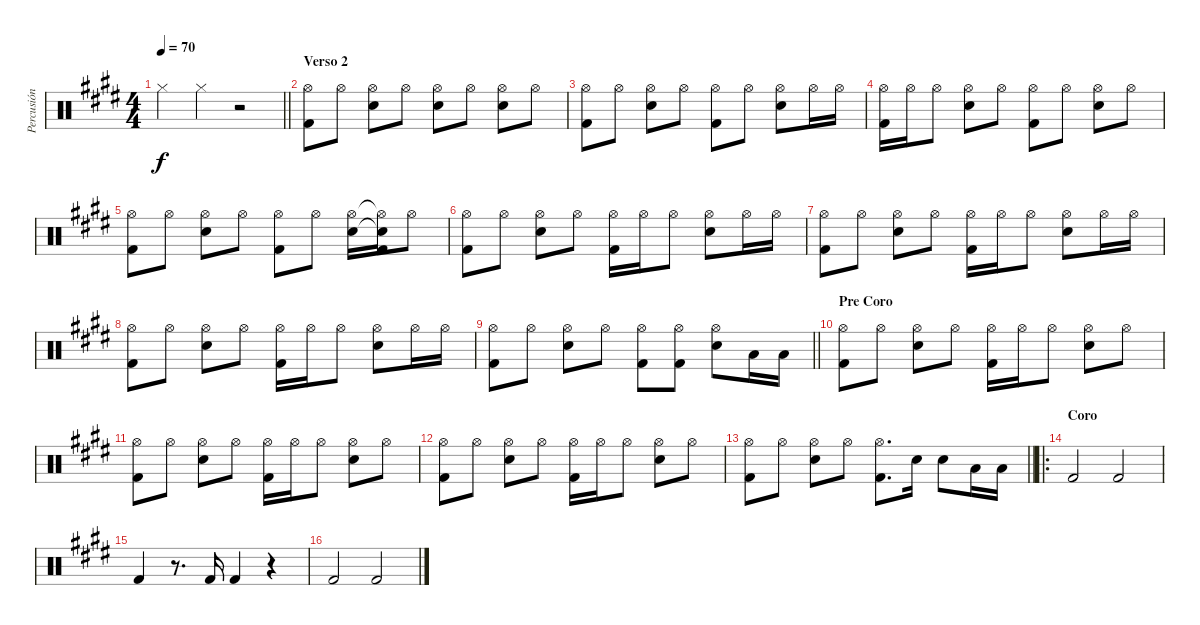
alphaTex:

\track ("Percusión" "Percusión") {instrument percussion}
\staff {score}
\articulation defaults
\ts (4 4)
\tempo 70
\clef neutral
\barLineRight lightlight
\ks e "Hi-Hat (closed)".4{dy f} "Hi-Hat (closed)".4
r.2 |
\section ("" "Verso 2")
("Hi-Hat (open)" "Kick (hit) 2").8 "Hi-Hat (open)".8 ("Hi-Hat (open)" "Snare (hit) 2").8 "Hi-Hat (open)".8 ("Hi-Hat (open)" "Snare (hit)").8 "Hi-Hat (open)".8 ("Hi-Hat (open)" "Snare (hit) 2").8 "Hi-Hat (open)".8 |
("Hi-Hat (open)" "Kick (hit) 2").8 "Hi-Hat (open)".8 ("Hi-Hat (open)" "Snare (hit) 2").8 "Hi-Hat (open)".8 ("Hi-Hat (open)" "Kick (hit) 2").8 "Hi-Hat (open)".8 ("Hi-Hat (open)" "Snare (hit) 2").8 "Hi-Hat (open)".16 "Hi-Hat (open)".16 |
("Hi-Hat (open)" "Kick (hit) 2").16 "Hi-Hat (open)".16 "Hi-Hat (open)".8 ("Hi-Hat (open)" "Snare (hit) 2").8 "Hi-Hat (open)".8 ("Hi-Hat (open)" "Kick (hit) 2").8 "Hi-Hat (open)".8 ("Hi-Hat (open)" "Snare (hit) 2").8 "Hi-Hat (open)".8 |
("Hi-Hat (open)" "Kick (hit) 2").8 "Hi-Hat (open)".8 ("Hi-Hat (open)" "Snare (hit) 2").8 "Hi-Hat (open)".8 ("Hi-Hat (open)" "Kick (hit) 2").8 "Hi-Hat (open)".8 ("Hi-Hat (open)" "Snare (hit) 2").16 ("Hi-Hat (open)"{t} "Snare (hit) 2"{t} "Kick (hit) 2").16 "Hi-Hat (open)".8 |
("Hi-Hat (open)" "Kick (hit) 2").8 "Hi-Hat (open)".8 ("Hi-Hat (open)" "Snare (hit) 2").8 "Hi-Hat (open)".8 ("Hi-Hat (open)" "Kick (hit) 2").16 "Hi-Hat (open)".16 "Hi-Hat (open)".8 ("Hi-Hat (open)" "Snare (hit) 2").8 "Hi-Hat (open)".16 "Hi-Hat (open)".16 |
("Hi-Hat (open)" "Kick (hit) 2").8 "Hi-Hat (open)".8 ("Hi-Hat (open)" "Snare (hit) 2").8 "Hi-Hat (open)".8 ("Hi-Hat (open)" "Kick (hit) 2").16 "Hi-Hat (open)".16 "Hi-Hat (open)".8 ("Hi-Hat (open)" "Snare (hit) 2").8 "Hi-Hat (open)".16 "Hi-Hat (open)".16 |
("Hi-Hat (open)" "Kick (hit) 2").8 "Hi-Hat (open)".8 ("Hi-Hat (open)" "Snare (hit) 2").8 "Hi-Hat (open)".8 ("Hi-Hat (open)" "Kick (hit) 2").16 "Hi-Hat (open)".16 "Hi-Hat (open)".8 ("Hi-Hat (open)" "Snare (hit) 2").8 "Hi-Hat (open)".16 "Hi-Hat (open)".16 |
\barLineRight lightlight
("Hi-Hat (open)" "Kick (hit) 2").8 "Hi-Hat (open)".8 ("Hi-Hat (open)" "Snare (hit) 2").8 "Hi-Hat (open)".8 ("Hi-Hat (open)" "Kick (hit) 2").8 ("Hi-Hat (open)" "Kick (hit) 2").8 ("Hi-Hat (open)" "Snare (hit) 2").8 "Low Tom (hit)".16 "Low Tom (hit)".16 |
\section ("" "Pre Coro")
("Hi-Hat (open)" "Kick (hit) 2").8 "Hi-Hat (open)".8 ("Hi-Hat (open)" "Snare (hit) 2").8 "Hi-Hat (open)".8 ("Hi-Hat (open)" "Kick (hit) 2").16 "Hi-Hat (open)".16 "Hi-Hat (open)".8 ("Hi-Hat (open)" "Snare (hit) 2").8 "Hi-Hat (open)".8 |
("Hi-Hat (open)" "Kick (hit) 2").8 "Hi-Hat (open)".8 ("Hi-Hat (open)" "Snare (hit) 2").8 "Hi-Hat (open)".8 ("Hi-Hat (open)" "Kick (hit) 2").16 "Hi-Hat (open)".16 "Hi-Hat (open)".8 ("Hi-Hat (open)" "Snare (hit) 2").8 "Hi-Hat (open)".8 |
("Hi-Hat (open)" "Kick (hit) 2").8 "Hi-Hat (open)".8 ("Hi-Hat (open)" "Snare (hit) 2").8 "Hi-Hat (open)".8 ("Hi-Hat (open)" "Kick (hit) 2").16 "Hi-Hat (open)".16 "Hi-Hat (open)".8 ("Hi-Hat (open)" "Snare (hit) 2").8 "Hi-Hat (open)".8 |
\barLineRight lightlight
("Hi-Hat (open)" "Kick (hit) 2").8 "Hi-Hat (open)".8 ("Hi-Hat (open)" "Snare (hit) 2").8 "Hi-Hat (open)".8 ("Hi-Hat (open)" "Kick (hit) 2").8{d} "Snare (hit) 2".16 "Snare (hit) 2".8 "Low Tom (hit)".16 "Low Tom (hit)".16 |
\ro
\section ("" "Coro")
"Kick (hit) 2".2 "Kick (hit) 2".2 |
"Kick (hit) 2".4 r.8{d} "Kick (hit) 2".16 "Kick (hit) 2".4 r.4 |
"Kick (hit) 2".2 "Kick (hit) 2".2
